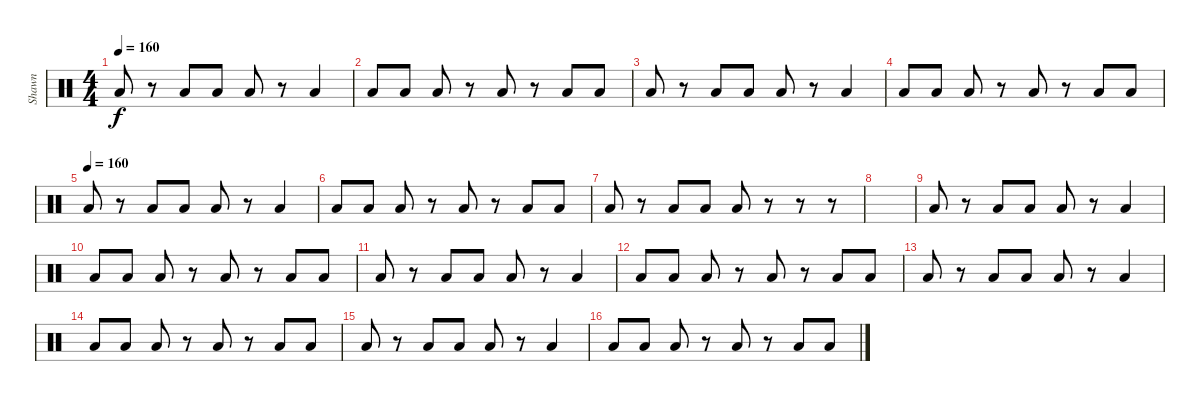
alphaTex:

\track ("Shawn" "Shawn") {instrument percussion}
\staff {score}
\articulation defaults
\ts (4 4)
\tempo 160
\clef neutral
\ks c "Low Tom (hit)".8{dy f}
r.8 "Low Tom (hit)".8 "Low Tom (hit)".8 "Low Tom (hit)".8 r.8 "Low Tom (hit)".4 |
"Low Tom (hit)".8 "Low Tom (hit)".8 "Low Tom (hit)".8 r.8 "Low Tom (hit)".8 r.8 "Low Tom (hit)".8 "Low Tom (hit)".8 |
"Low Tom (hit)".8 r.8 "Low Tom (hit)".8 "Low Tom (hit)".8 "Low Tom (hit)".8 r.8 "Low Tom (hit)".4 |
"Low Tom (hit)".8 "Low Tom (hit)".8 "Low Tom (hit)".8 r.8 "Low Tom (hit)".8 r.8 "Low Tom (hit)".8 "Low Tom (hit)".8 |
\tempo (160)
"Low Tom (hit)".8 r.8 "Low Tom (hit)".8 "Low Tom (hit)".8 "Low Tom (hit)".8 r.8 "Low Tom (hit)".4 |
"Low Tom (hit)".8 "Low Tom (hit)".8 "Low Tom (hit)".8 r.8 "Low Tom (hit)".8 r.8 "Low Tom (hit)".8 "Low Tom (hit)".8 |
"Low Tom (hit)".8 r.8 "Low Tom (hit)".8 "Low Tom (hit)".8 "Low Tom (hit)".8 r.8 r.8 r.8 |
|
"Low Tom (hit)".8 r.8 "Low Tom (hit)".8 "Low Tom (hit)".8 "Low Tom (hit)".8 r.8 "Low Tom (hit)".4 |
"Low Tom (hit)".8 "Low Tom (hit)".8 "Low Tom (hit)".8 r.8 "Low Tom (hit)".8 r.8 "Low Tom (hit)".8 "Low Tom (hit)".8 |
"Low Tom (hit)".8 r.8 "Low Tom (hit)".8 "Low Tom (hit)".8 "Low Tom (hit)".8 r.8 "Low Tom (hit)".4 |
"Low Tom (hit)".8 "Low Tom (hit)".8 "Low Tom (hit)".8 r.8 "Low Tom (hit)".8 r.8 "Low Tom (hit)".8 "Low Tom (hit)".8 |
"Low Tom (hit)".8 r.8 "Low Tom (hit)".8 "Low Tom (hit)".8 "Low Tom (hit)".8 r.8 "Low Tom (hit)".4 |
"Low Tom (hit)".8 "Low Tom (hit)".8 "Low Tom (hit)".8 r.8 "Low Tom (hit)".8 r.8 "Low Tom (hit)".8 "Low Tom (hit)".8 |
"Low Tom (hit)".8 r.8 "Low Tom (hit)".8 "Low Tom (hit)".8 "Low Tom (hit)".8 r.8 "Low Tom (hit)".4 |
"Low Tom (hit)".8 "Low Tom (hit)".8 "Low Tom (hit)".8 r.8 "Low Tom (hit)".8 r.8 "Low Tom (hit)".8 "Low Tom (hit)".8
